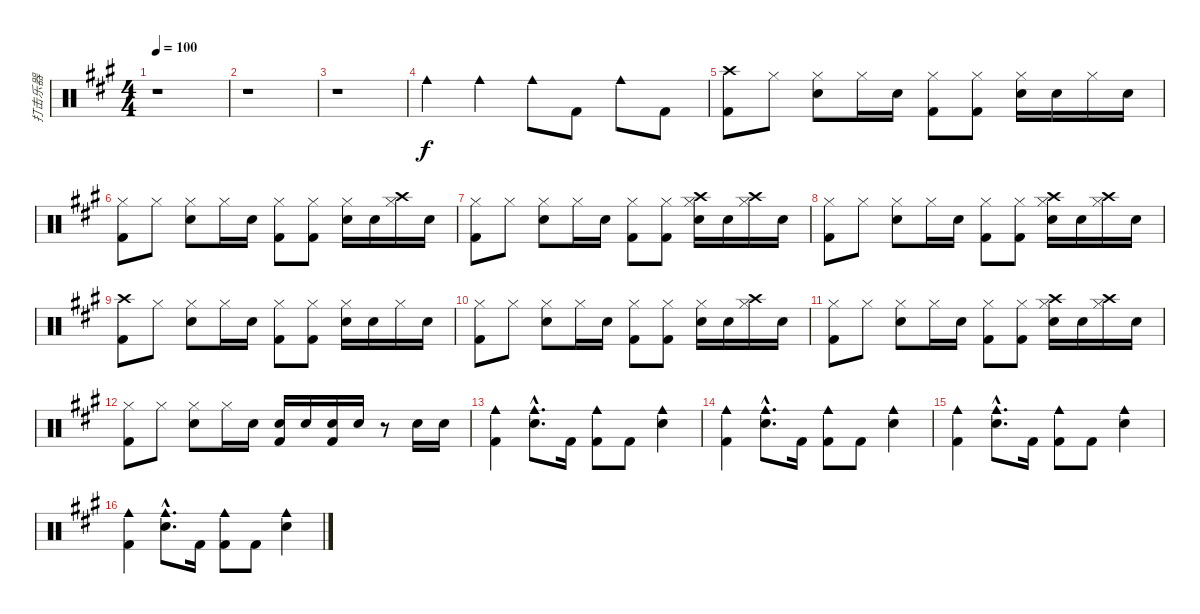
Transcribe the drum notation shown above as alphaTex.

\track ("打击乐器" "打击乐器") {instrument percussion}
\staff {score}
\articulation defaults
\ts (4 4)
\tempo 100
\clef neutral
\ks a
r.1{dy f} |
r.1 |
r.1 |
"Cowbell medium (hit)".4 "Cowbell medium (hit)".4 "Cowbell medium (hit)".8 "Kick (hit) 2".8 "Cowbell medium (hit)".8 "Kick (hit) 2".8 |
("Crash high (hit)" "Kick (hit) 2").8 "Hi-Hat (closed)".8 ("Hi-Hat (closed)" "Electric Snare (hit)").8 "Hi-Hat (closed)".16 "Electric Snare (hit)".16 ("Hi-Hat (closed)" "Kick (hit) 2").8 ("Hi-Hat (closed)" "Kick (hit) 2").8 ("Hi-Hat (closed)" "Electric Snare (hit)").16 "Electric Snare (hit)".16 "Hi-Hat (closed)".16 "Electric Snare (hit)".16 |
("Hi-Hat (closed)" "Kick (hit) 2").8 "Hi-Hat (closed)".8 ("Hi-Hat (closed)" "Electric Snare (hit)").8 "Hi-Hat (closed)".16 "Electric Snare (hit)".16 ("Hi-Hat (closed)" "Kick (hit) 2").8 ("Hi-Hat (closed)" "Kick (hit) 2").8 ("Hi-Hat (closed)" "Electric Snare (hit)").16 "Electric Snare (hit)".16 ("Crash high (hit)" "Hi-Hat (closed)").16 "Electric Snare (hit)".16 |
("Hi-Hat (closed)" "Kick (hit) 2").8 "Hi-Hat (closed)".8 ("Hi-Hat (closed)" "Electric Snare (hit)").8 "Hi-Hat (closed)".16 "Electric Snare (hit)".16 ("Hi-Hat (closed)" "Kick (hit) 2").8 ("Hi-Hat (closed)" "Kick (hit) 2").8 ("Crash high (hit)" "Hi-Hat (closed)" "Electric Snare (hit)").16 "Electric Snare (hit)".16 ("Crash high (hit)" "Hi-Hat (closed)").16 "Electric Snare (hit)".16 |
("Hi-Hat (closed)" "Kick (hit) 2").8 "Hi-Hat (closed)".8 ("Hi-Hat (closed)" "Electric Snare (hit)").8 "Hi-Hat (closed)".16 "Electric Snare (hit)".16 ("Hi-Hat (closed)" "Kick (hit) 2").8 ("Hi-Hat (closed)" "Kick (hit) 2").8 ("Crash high (hit)" "Hi-Hat (closed)" "Electric Snare (hit)").16 "Electric Snare (hit)".16 ("Crash high (hit)" "Hi-Hat (closed)").16 "Electric Snare (hit)".16 |
("Crash high (hit)" "Kick (hit) 2").8 "Hi-Hat (closed)".8 ("Hi-Hat (closed)" "Electric Snare (hit)").8 "Hi-Hat (closed)".16 "Electric Snare (hit)".16 ("Hi-Hat (closed)" "Kick (hit) 2").8 ("Hi-Hat (closed)" "Kick (hit) 2").8 ("Hi-Hat (closed)" "Electric Snare (hit)").16 "Electric Snare (hit)".16 "Hi-Hat (closed)".16 "Electric Snare (hit)".16 |
("Hi-Hat (closed)" "Kick (hit) 2").8 "Hi-Hat (closed)".8 ("Hi-Hat (closed)" "Electric Snare (hit)").8 "Hi-Hat (closed)".16 "Electric Snare (hit)".16 ("Hi-Hat (closed)" "Kick (hit) 2").8 ("Hi-Hat (closed)" "Kick (hit) 2").8 ("Hi-Hat (closed)" "Electric Snare (hit)").16 "Electric Snare (hit)".16 ("Crash high (hit)" "Hi-Hat (closed)").16 "Electric Snare (hit)".16 |
("Hi-Hat (closed)" "Kick (hit) 2").8 "Hi-Hat (closed)".8 ("Hi-Hat (closed)" "Electric Snare (hit)").8 "Hi-Hat (closed)".16 "Electric Snare (hit)".16 ("Hi-Hat (closed)" "Kick (hit) 2").8 ("Hi-Hat (closed)" "Kick (hit) 2").8 ("Crash high (hit)" "Hi-Hat (closed)" "Electric Snare (hit)").16 "Electric Snare (hit)".16 ("Crash high (hit)" "Hi-Hat (closed)").16 "Electric Snare (hit)".16 |
("Hi-Hat (closed)" "Kick (hit) 2").8 "Hi-Hat (closed)".8 ("Hi-Hat (closed)" "Electric Snare (hit)").8 "Hi-Hat (closed)".16 "Electric Snare (hit)".16 ("Electric Snare (hit)" "Kick (hit) 2").16 "Electric Snare (hit)".16 ("Electric Snare (hit)" "Kick (hit) 2").16 "Electric Snare (hit)".16 r.8 "Electric Snare (hit)".16 "Electric Snare (hit)".16 |
("Cowbell medium (hit)" "Kick (hit) 2").4 ("Cowbell medium (hit)"{hac} "Electric Snare (hit)"{hac}).8{d} "Kick (hit) 2".16 ("Cowbell medium (hit)" "Kick (hit) 2").8 "Kick (hit) 2".8 ("Cowbell medium (hit)" "Electric Snare (hit)").4 |
("Cowbell medium (hit)" "Kick (hit) 2").4 ("Cowbell medium (hit)"{hac} "Electric Snare (hit)"{hac}).8{d} "Kick (hit) 2".16 ("Cowbell medium (hit)" "Kick (hit) 2").8 "Kick (hit) 2".8 ("Cowbell medium (hit)" "Electric Snare (hit)").4 |
("Cowbell medium (hit)" "Kick (hit) 2").4 ("Cowbell medium (hit)"{hac} "Electric Snare (hit)"{hac}).8{d} "Kick (hit) 2".16 ("Cowbell medium (hit)" "Kick (hit) 2").8 "Kick (hit) 2".8 ("Cowbell medium (hit)" "Electric Snare (hit)").4 |
("Cowbell medium (hit)" "Kick (hit) 2").4 ("Cowbell medium (hit)"{hac} "Electric Snare (hit)"{hac}).8{d} "Kick (hit) 2".16 ("Cowbell medium (hit)" "Kick (hit) 2").8 "Kick (hit) 2".8 ("Cowbell medium (hit)" "Electric Snare (hit)").4
